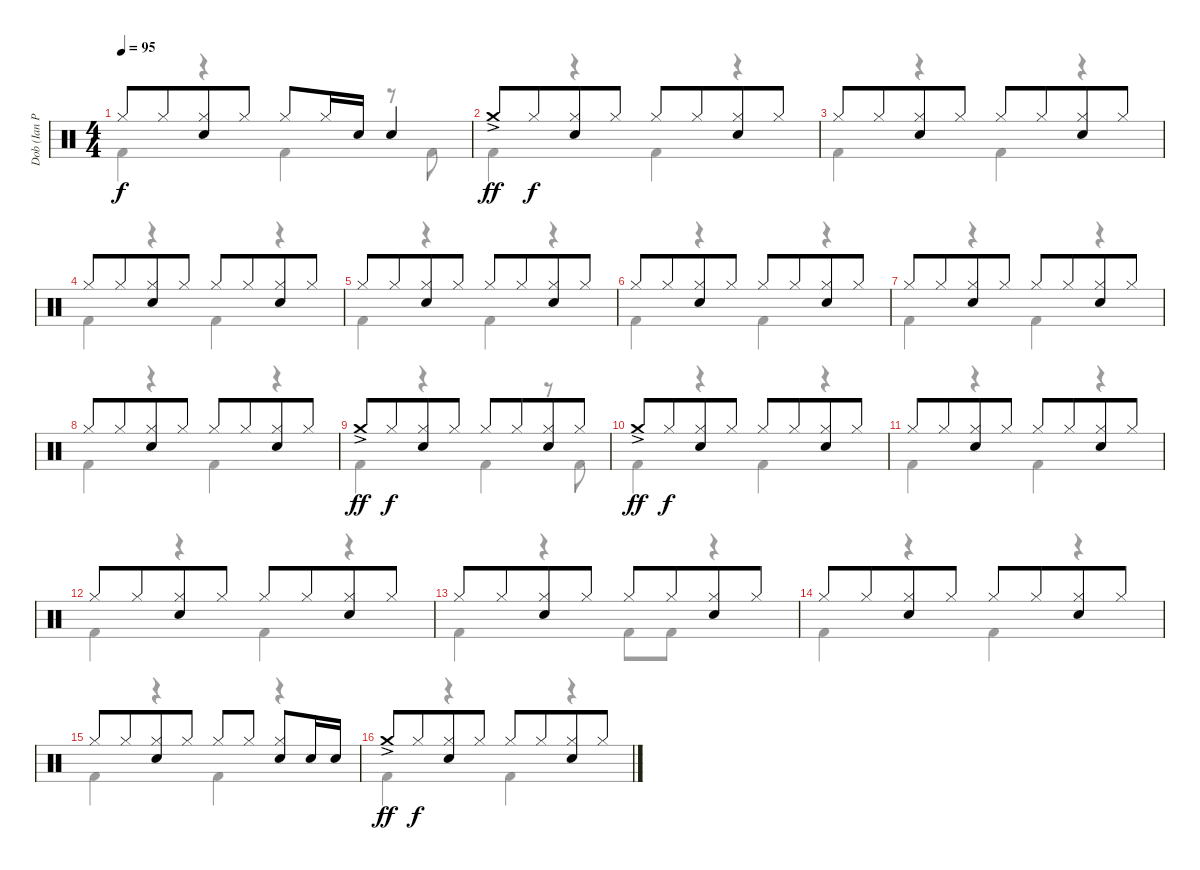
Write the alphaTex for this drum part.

\track ("Dob (Ian Paice)" "Dob (Ian P") {instrument percussion}
\staff {score}
\articulation defaults
\voice
\ts (4 4)
\tempo 95
\clef neutral
\ks c "Hi-Hat (closed)".8{dy f} "Hi-Hat (closed)".8{beam merge}
("Hi-Hat (closed)" "Electric Snare (hit)").8 "Hi-Hat (closed)".8 "Hi-Hat (closed)".8 "Hi-Hat (closed)".16 "Electric Snare (hit)".16 "Electric Snare (hit)".4 |
"Crash medium (hit)"{ac}.8{dy ff} "Hi-Hat (closed)".8{dy f beam merge} ("Hi-Hat (closed)" "Electric Snare (hit)").8 "Hi-Hat (closed)".8 "Hi-Hat (closed)".8 "Hi-Hat (closed)".8{beam merge} ("Hi-Hat (closed)" "Electric Snare (hit)").8 "Hi-Hat (closed)".8 |
"Hi-Hat (closed)".8 "Hi-Hat (closed)".8{beam merge} ("Hi-Hat (closed)" "Electric Snare (hit)").8 "Hi-Hat (closed)".8 "Hi-Hat (closed)".8 "Hi-Hat (closed)".8{beam merge} ("Hi-Hat (closed)" "Electric Snare (hit)").8 "Hi-Hat (closed)".8 |
"Hi-Hat (closed)".8 "Hi-Hat (closed)".8{beam merge} ("Hi-Hat (closed)" "Electric Snare (hit)").8 "Hi-Hat (closed)".8 "Hi-Hat (closed)".8 "Hi-Hat (closed)".8{beam merge} ("Hi-Hat (closed)" "Electric Snare (hit)").8 "Hi-Hat (closed)".8 |
"Hi-Hat (closed)".8 "Hi-Hat (closed)".8{beam merge} ("Hi-Hat (closed)" "Electric Snare (hit)").8 "Hi-Hat (closed)".8 "Hi-Hat (closed)".8 "Hi-Hat (closed)".8{beam merge} ("Hi-Hat (closed)" "Electric Snare (hit)").8 "Hi-Hat (closed)".8 |
"Hi-Hat (closed)".8 "Hi-Hat (closed)".8{beam merge} ("Hi-Hat (closed)" "Electric Snare (hit)").8 "Hi-Hat (closed)".8 "Hi-Hat (closed)".8 "Hi-Hat (closed)".8{beam merge} ("Hi-Hat (closed)" "Electric Snare (hit)").8 "Hi-Hat (closed)".8 |
"Hi-Hat (closed)".8 "Hi-Hat (closed)".8{beam merge} ("Hi-Hat (closed)" "Electric Snare (hit)").8 "Hi-Hat (closed)".8 "Hi-Hat (closed)".8 "Hi-Hat (closed)".8{beam merge} ("Hi-Hat (closed)" "Electric Snare (hit)").8 "Hi-Hat (closed)".8 |
"Hi-Hat (closed)".8 "Hi-Hat (closed)".8{beam merge} ("Hi-Hat (closed)" "Electric Snare (hit)").8 "Hi-Hat (closed)".8 "Hi-Hat (closed)".8 "Hi-Hat (closed)".8{beam merge} ("Hi-Hat (closed)" "Electric Snare (hit)").8 "Hi-Hat (closed)".8 |
"Crash medium (hit)"{ac}.8{dy ff} "Hi-Hat (closed)".8{dy f beam merge} ("Hi-Hat (closed)" "Electric Snare (hit)").8 "Hi-Hat (closed)".8 "Hi-Hat (closed)".8 "Hi-Hat (closed)".8{beam merge} ("Hi-Hat (closed)" "Electric Snare (hit)").8 "Hi-Hat (closed)".8 |
"Crash medium (hit)"{ac}.8{dy ff} "Hi-Hat (closed)".8{dy f beam merge} ("Hi-Hat (closed)" "Electric Snare (hit)").8 "Hi-Hat (closed)".8 "Hi-Hat (closed)".8 "Hi-Hat (closed)".8{beam merge} ("Hi-Hat (closed)" "Electric Snare (hit)").8 "Hi-Hat (closed)".8 |
"Hi-Hat (closed)".8 "Hi-Hat (closed)".8{beam merge} ("Hi-Hat (closed)" "Electric Snare (hit)").8 "Hi-Hat (closed)".8 "Hi-Hat (closed)".8 "Hi-Hat (closed)".8{beam merge} ("Hi-Hat (closed)" "Electric Snare (hit)").8 "Hi-Hat (closed)".8 |
"Hi-Hat (closed)".8 "Hi-Hat (closed)".8{beam merge} ("Hi-Hat (closed)" "Electric Snare (hit)").8 "Hi-Hat (closed)".8 "Hi-Hat (closed)".8 "Hi-Hat (closed)".8{beam merge} ("Hi-Hat (closed)" "Electric Snare (hit)").8 "Hi-Hat (closed)".8 |
"Hi-Hat (closed)".8 "Hi-Hat (closed)".8{beam merge} ("Hi-Hat (closed)" "Electric Snare (hit)").8 "Hi-Hat (closed)".8 "Hi-Hat (closed)".8 "Hi-Hat (closed)".8{beam merge} ("Hi-Hat (closed)" "Electric Snare (hit)").8 "Hi-Hat (closed)".8 |
"Hi-Hat (closed)".8 "Hi-Hat (closed)".8{beam merge} ("Hi-Hat (closed)" "Electric Snare (hit)").8 "Hi-Hat (closed)".8 "Hi-Hat (closed)".8 "Hi-Hat (closed)".8{beam merge} ("Hi-Hat (closed)" "Electric Snare (hit)").8 "Hi-Hat (closed)".8 |
"Hi-Hat (closed)".8 "Hi-Hat (closed)".8{beam merge} ("Hi-Hat (closed)" "Electric Snare (hit)").8 "Hi-Hat (closed)".8 "Hi-Hat (closed)".8 "Hi-Hat (closed)".8 ("Hi-Hat (closed)" "Electric Snare (hit)").8 "Electric Snare (hit)".16 "Electric Snare (hit)".16 |
"Crash medium (hit)"{ac}.8{dy ff} "Hi-Hat (closed)".8{dy f beam merge} ("Hi-Hat (closed)" "Electric Snare (hit)").8 "Hi-Hat (closed)".8 "Hi-Hat (closed)".8 "Hi-Hat (closed)".8{beam merge} ("Hi-Hat (closed)" "Electric Snare (hit)").8 "Hi-Hat (closed)".8
\voice
\clef neutral
\ottava regular
\simile none
\ks c "Kick (hit) 2".4{dy f}
r.4 "Kick (hit) 2".4 r.8 "Kick (hit) 2".8 |
"Kick (hit) 2".4 r.4 "Kick (hit) 2".4 r.4 |
"Kick (hit) 2".4 r.4 "Kick (hit) 2".4 r.4 |
"Kick (hit) 2".4 r.4 "Kick (hit) 2".4 r.4 |
"Kick (hit) 2".4 r.4 "Kick (hit) 2".4 r.4 |
"Kick (hit) 2".4 r.4 "Kick (hit) 2".4 r.4 |
"Kick (hit) 2".4 r.4 "Kick (hit) 2".4 r.4 |
"Kick (hit) 2".4 r.4 "Kick (hit) 2".4 r.4 |
"Kick (hit) 2".4 r.4 "Kick (hit) 2".4 r.8 "Kick (hit) 2".8 |
"Kick (hit) 2".4 r.4 "Kick (hit) 2".4 r.4 |
"Kick (hit) 2".4 r.4 "Kick (hit) 2".4 r.4 |
"Kick (hit) 2".4 r.4 "Kick (hit) 2".4 r.4 |
"Kick (hit) 2".4 r.4 "Kick (hit) 2".8 "Kick (hit) 2".8 r.4 |
"Kick (hit) 2".4 r.4 "Kick (hit) 2".4 r.4 |
"Kick (hit) 2".4 r.4 "Kick (hit) 2".4 r.4 |
"Kick (hit) 2".4 r.4 "Kick (hit) 2".4 r.4
